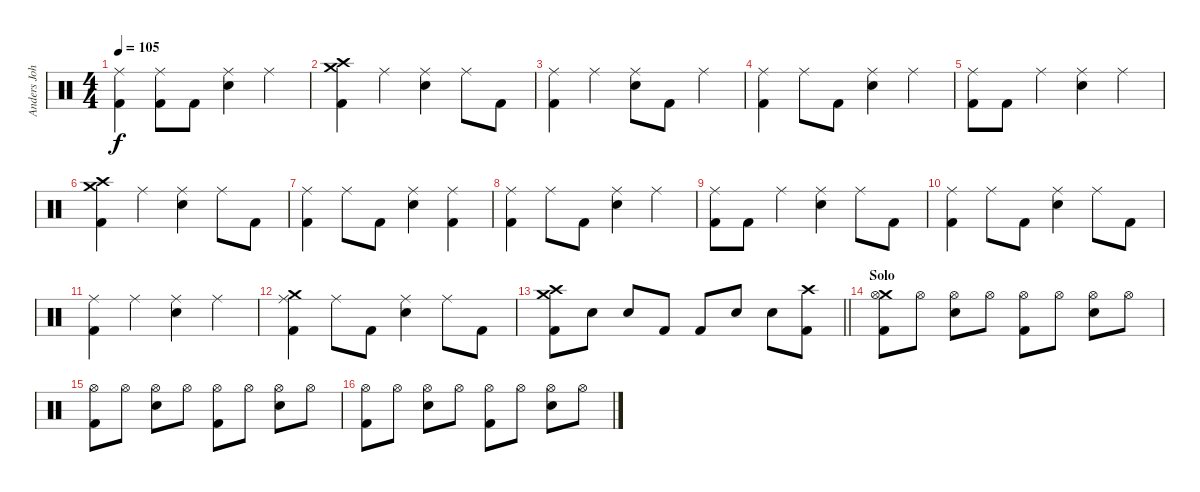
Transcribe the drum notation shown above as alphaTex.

\track ("Anders Johansson" "Anders Joh") {instrument percussion}
\staff {score}
\articulation defaults
\ts (4 4)
\tempo 105
\clef neutral
\ks c
("Ride (middle)" "Kick (hit) 2").4{dy f} ("Ride (middle)" "Kick (hit) 2").8 "Kick (hit) 2".8 ("Ride (middle)" "Snare (hit) 2").4 "Ride (middle)".4 |
("Crash medium (hit)" "Crash high (hit)" "Kick (hit) 2").4 "Ride (middle)".4 ("Ride (middle)" "Snare (hit) 2").4 "Ride (middle)".8 "Kick (hit) 2".8 |
("Ride (middle)" "Kick (hit) 2").4 "Ride (middle)".4 ("Ride (middle)" "Snare (hit) 2").8 "Kick (hit) 2".8 "Ride (middle)".4 |
("Ride (middle)" "Kick (hit) 2").4 "Ride (middle)".8 "Kick (hit) 2".8 ("Ride (middle)" "Snare (hit) 2").4 "Ride (middle)".4 |
("Ride (middle)" "Kick (hit) 2").8 "Kick (hit) 2".8 "Ride (middle)".4 ("Ride (middle)" "Snare (hit) 2").4 "Ride (middle)".4 |
("Crash medium (hit)" "Crash high (hit)" "Kick (hit) 2").4 "Ride (middle)".4 ("Ride (middle)" "Snare (hit) 2").4 "Ride (middle)".8 "Kick (hit) 2".8 |
("Ride (middle)" "Kick (hit) 2").4 "Ride (middle)".8 "Kick (hit) 2".8 ("Ride (middle)" "Snare (hit) 2").4 ("Ride (middle)" "Kick (hit) 2").4 |
("Ride (middle)" "Kick (hit) 2").4 "Ride (middle)".8 "Kick (hit) 2".8 ("Ride (middle)" "Snare (hit) 2").4 "Ride (middle)".4 |
("Ride (middle)" "Kick (hit) 2").8 "Kick (hit) 2".8 "Ride (middle)".4 ("Ride (middle)" "Snare (hit) 2").4 "Ride (middle)".8 "Kick (hit) 2".8 |
("Ride (middle)" "Kick (hit) 2").4 "Ride (middle)".8 "Kick (hit) 2".8 ("Ride (middle)" "Snare (hit) 2").4 "Ride (middle)".8 "Kick (hit) 2".8 |
("Ride (middle)" "Kick (hit) 2").4 "Ride (middle)".4 ("Ride (middle)" "Snare (hit) 2").4 "Ride (middle)".4 |
("Crash medium (hit)" "Ride (middle)" "Kick (hit) 2").4 "Ride (middle)".8 "Kick (hit) 2".8 ("Ride (middle)" "Snare (hit) 2").4 "Ride (middle)".8 "Kick (hit) 2".8 |
\barLineRight lightlight
("Crash high (hit)" "Crash medium (hit)" "Kick (hit) 2").8 "Snare (hit) 2".8 "Snare (hit) 2".8 "Kick (hit) 2".8 "Kick (hit) 2".8 "Snare (hit) 2".8 "Snare (hit) 2".8 ("Crash high (hit)" "Kick (hit) 2").8 |
\section ("" "Solo")
("Crash medium (hit)" "Hi-Hat (open)" "Kick (hit) 2").8 "Hi-Hat (open)".8 ("Hi-Hat (open)" "Snare (hit) 2").8 "Hi-Hat (open)".8 ("Hi-Hat (open)" "Kick (hit) 2").8 "Hi-Hat (open)".8 ("Hi-Hat (open)" "Snare (hit) 2").8 "Hi-Hat (open)".8 |
("Hi-Hat (open)" "Kick (hit) 2").8 "Hi-Hat (open)".8 ("Hi-Hat (open)" "Snare (hit) 2").8 "Hi-Hat (open)".8 ("Hi-Hat (open)" "Kick (hit) 2").8 "Hi-Hat (open)".8 ("Hi-Hat (open)" "Snare (hit) 2").8 "Hi-Hat (open)".8 |
("Hi-Hat (open)" "Kick (hit) 2").8 "Hi-Hat (open)".8 ("Hi-Hat (open)" "Snare (hit) 2").8 "Hi-Hat (open)".8 ("Hi-Hat (open)" "Kick (hit) 2").8 "Hi-Hat (open)".8 ("Hi-Hat (open)" "Snare (hit) 2").8 "Hi-Hat (open)".8
